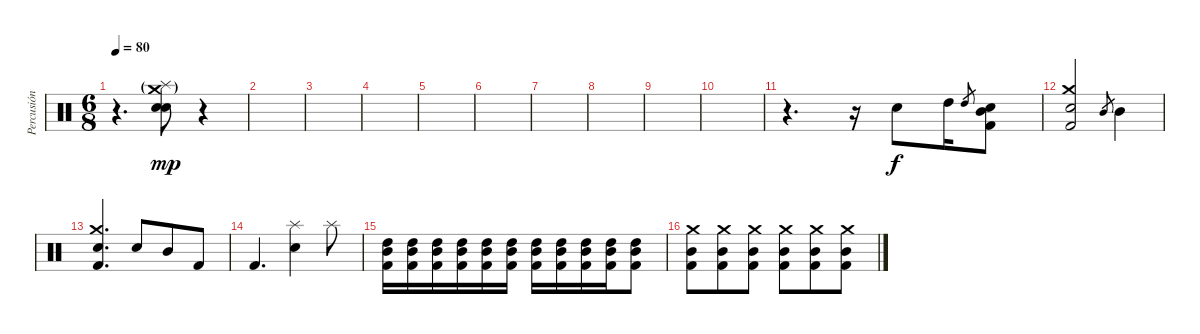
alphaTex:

\track ("Percusión" "Percusión") {instrument percussion}
\staff {score}
\articulation defaults
\ts (6 8)
\tempo 80
\clef neutral
\ks c
r.4{d dy mp} ("Snare (hit) 2" "Splash (hit)"{g} "Electric Snare (hit)" "Crash medium (hit)"{g}).8 r.4 |
|
|
|
|
|
|
|
|
|
r.4{d} r.16 "Electric Snare (hit)".8{dy f} "High Tom (hit)".16 "High Tom (hit)".8{gr} ("Snare (hit) 2" "Kick (hit) 2" "Mid Tom (hit)").8 |
("Snare (hit) 2" "Crash medium (hit)" "Kick (hit) 2").2 "Mid Tom (hit)".8{gr} "Mid Tom (hit)".4 |
("Snare (hit) 2" "Crash medium (hit)" "Kick (hit) 2").4{d} "Snare (hit) 2".8 "Mid Tom (hit)".8 "Kick (hit) 2".8 |
"Kick (hit) 2".4{d} ("Snare (hit) 2" "Splash (hit)").4 "Splash (hit)".8 |
("Kick (hit) 2" "Mid Tom (hit)" "High Tom (hit)").16 ("Kick (hit) 2" "Mid Tom (hit)" "High Tom (hit)").16 ("Kick (hit) 2" "Mid Tom (hit)" "High Tom (hit)").16 ("Kick (hit) 2" "Mid Tom (hit)" "High Tom (hit)").16 ("Kick (hit) 2" "Mid Tom (hit)" "High Tom (hit)").16 ("Kick (hit) 2" "Mid Tom (hit)" "High Tom (hit)").16 ("Kick (hit) 2" "Mid Tom (hit)" "High Tom (hit)").16 ("Kick (hit) 2" "Mid Tom (hit)" "High Tom (hit)").16 ("Kick (hit) 2" "Mid Tom (hit)" "High Tom (hit)").16 ("Kick (hit) 2" "Mid Tom (hit)" "High Tom (hit)").16 ("Kick (hit) 2" "Mid Tom (hit)" "High Tom (hit)").8 |
("Kick (hit) 2" "Mid Tom (hit)" "Crash medium (hit)").8 ("Kick (hit) 2" "Mid Tom (hit)" "Crash medium (hit)").8 ("Kick (hit) 2" "Mid Tom (hit)" "Crash medium (hit)").8 ("Kick (hit) 2" "Mid Tom (hit)" "Crash medium (hit)").8 ("Kick (hit) 2" "Mid Tom (hit)" "Crash medium (hit)").8 ("Kick (hit) 2" "Mid Tom (hit)" "Crash medium (hit)").8
